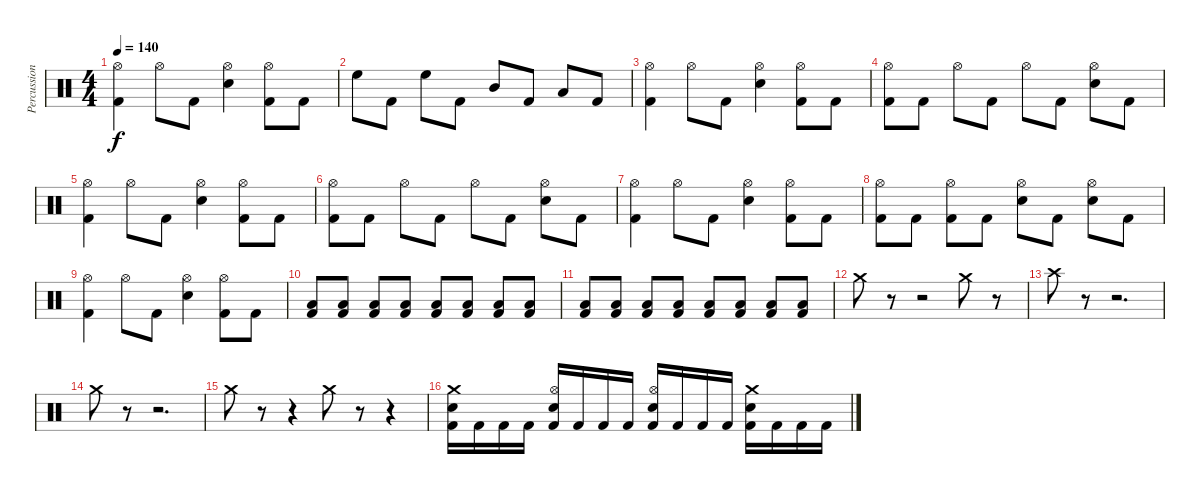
\track ("Percussion" "Percussion") {instrument percussion}
\staff {score}
\articulation defaults
\ts (4 4)
\tempo 140
\clef neutral
\ks c
("Kick (hit) 2" "Hi-Hat (open)").4{dy f} "Hi-Hat (open)".8 "Kick (hit) 2".8 ("Electric Snare (hit)" "Hi-Hat (open)").4 ("Kick (hit) 2" "Hi-Hat (open)").8 "Kick (hit) 2".8 |
"High Floor Tom (hit)".8 "Kick (hit) 2".8 "High Floor Tom (hit)".8 "Kick (hit) 2".8 "Mid Tom (hit)".8 "Kick (hit) 2".8 "Low Floor Tom (hit)".8 "Kick (hit) 2".8 |
("Kick (hit) 2" "Hi-Hat (open)").4 "Hi-Hat (open)".8 "Kick (hit) 2".8 ("Electric Snare (hit)" "Hi-Hat (open)").4 ("Kick (hit) 2" "Hi-Hat (open)").8 "Kick (hit) 2".8 |
("Kick (hit) 2" "Hi-Hat (open)").8 "Kick (hit) 2".8 "Hi-Hat (open)".8 "Kick (hit) 2".8 "Hi-Hat (open)".8 "Kick (hit) 2".8 ("Electric Snare (hit)" "Hi-Hat (open)").8 "Kick (hit) 2".8 |
("Kick (hit) 2" "Hi-Hat (open)").4 "Hi-Hat (open)".8 "Kick (hit) 2".8 ("Electric Snare (hit)" "Hi-Hat (open)").4 ("Kick (hit) 2" "Hi-Hat (open)").8 "Kick (hit) 2".8 |
("Kick (hit) 2" "Hi-Hat (open)").8 "Kick (hit) 2".8 "Hi-Hat (open)".8 "Kick (hit) 2".8 "Hi-Hat (open)".8 "Kick (hit) 2".8 ("Electric Snare (hit)" "Hi-Hat (open)").8 "Kick (hit) 2".8 |
("Kick (hit) 2" "Hi-Hat (open)").4 "Hi-Hat (open)".8 "Kick (hit) 2".8 ("Electric Snare (hit)" "Hi-Hat (open)").4 ("Kick (hit) 2" "Hi-Hat (open)").8 "Kick (hit) 2".8 |
("Kick (hit) 2" "Hi-Hat (open)").8 "Kick (hit) 2".8 ("Kick (hit) 2" "Hi-Hat (open)").8 "Kick (hit) 2".8 ("Electric Snare (hit)" "Hi-Hat (open)").8 "Kick (hit) 2".8 ("Electric Snare (hit)" "Hi-Hat (open)").8 "Kick (hit) 2".8 |
("Kick (hit) 2" "Hi-Hat (open)").4 "Hi-Hat (open)".8 "Kick (hit) 2".8 ("Electric Snare (hit)" "Hi-Hat (open)").4 ("Kick (hit) 2" "Hi-Hat (open)").8 "Kick (hit) 2".8 |
("Kick (hit) 2" "Low Floor Tom (hit)").8 ("Kick (hit) 2" "Low Floor Tom (hit)").8 ("Kick (hit) 2" "Low Floor Tom (hit)").8 ("Kick (hit) 2" "Low Floor Tom (hit)").8 ("Kick (hit) 2" "Low Floor Tom (hit)").8 ("Kick (hit) 2" "Low Floor Tom (hit)").8 ("Kick (hit) 2" "Low Floor Tom (hit)").8 ("Kick (hit) 2" "Low Floor Tom (hit)").8 |
("Kick (hit) 2" "Low Floor Tom (hit)").8 ("Kick (hit) 2" "Low Floor Tom (hit)").8 ("Kick (hit) 2" "Low Floor Tom (hit)").8 ("Kick (hit) 2" "Low Floor Tom (hit)").8 ("Kick (hit) 2" "Low Floor Tom (hit)").8 ("Kick (hit) 2" "Low Floor Tom (hit)").8 ("Kick (hit) 2" "Low Floor Tom (hit)").8 ("Kick (hit) 2" "Low Floor Tom (hit)").8 |
"Crash medium (hit)".8 r.8 r.2 "Crash medium (hit)".8 r.8 |
"Crash high (hit)".8 r.8 r.2{d} |
"Crash medium (hit)".8 r.8 r.2{d} |
"Crash medium (hit)".8 r.8 r.4 "Crash medium (hit)".8 r.8 r.4 |
("Kick (hit) 2" "Electric Snare (hit)" "Crash medium (hit)").16 "Kick (hit) 2".16 "Kick (hit) 2".16 "Kick (hit) 2".16 ("Kick (hit) 2" "Electric Snare (hit)" "Hi-Hat (open)").16 "Kick (hit) 2".16 "Kick (hit) 2".16 "Kick (hit) 2".16 ("Kick (hit) 2" "Electric Snare (hit)" "Hi-Hat (open)").16 "Kick (hit) 2".16 "Kick (hit) 2".16 "Kick (hit) 2".16 ("Kick (hit) 2" "Electric Snare (hit)" "Crash medium (hit)").16 "Kick (hit) 2".16 "Kick (hit) 2".16 "Kick (hit) 2".16
